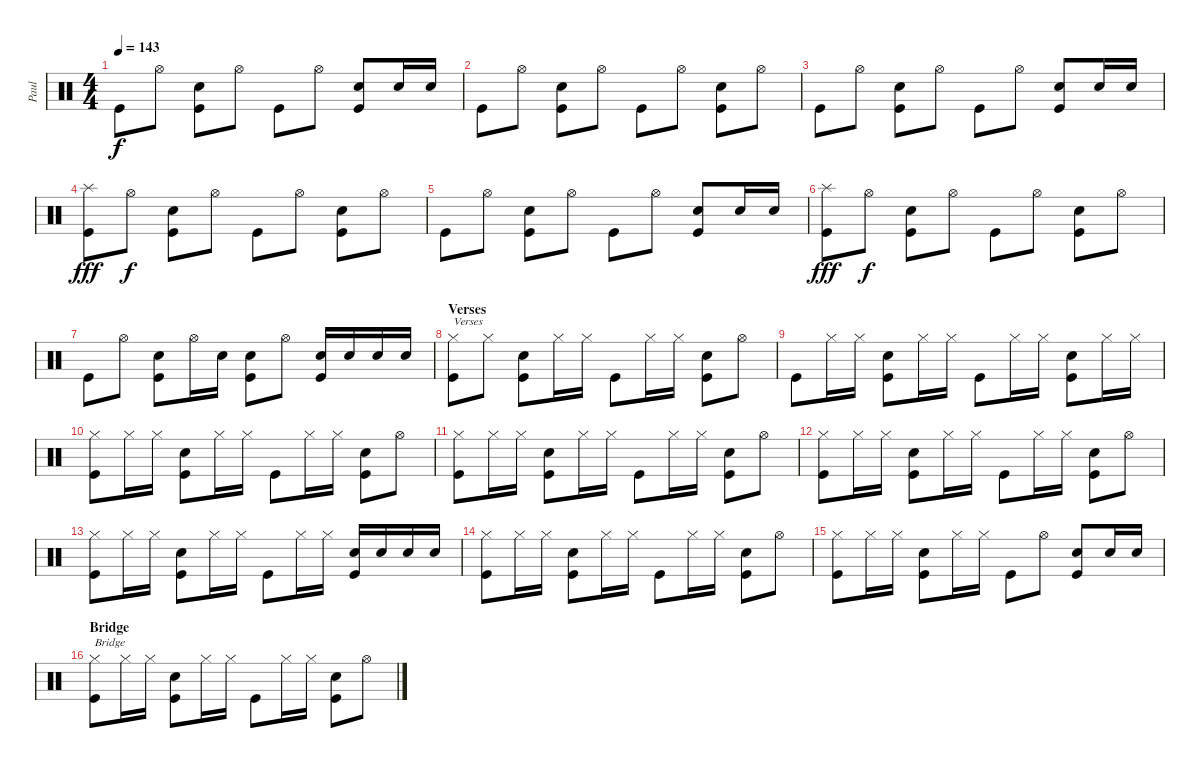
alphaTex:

\track ("Paul" "Paul") {instrument percussion}
\staff {score}
\articulation defaults
\ts (4 4)
\tempo 143
\clef neutral
\ks c "Kick (hit)".8{dy f} "Hi-Hat (open)".8
("Kick (hit)" "Electric Snare (hit)").8 "Hi-Hat (open)".8 "Kick (hit)".8 "Hi-Hat (open)".8 ("Kick (hit)" "Electric Snare (hit)").8 "Electric Snare (hit)".16 "Electric Snare (hit)".16 |
"Kick (hit)".8 "Hi-Hat (open)".8 ("Kick (hit)" "Electric Snare (hit)").8 "Hi-Hat (open)".8 "Kick (hit)".8 "Hi-Hat (open)".8 ("Kick (hit)" "Electric Snare (hit)").8 "Hi-Hat (open)".8 |
"Kick (hit)".8 "Hi-Hat (open)".8 ("Kick (hit)" "Electric Snare (hit)").8 "Hi-Hat (open)".8 "Kick (hit)".8 "Hi-Hat (open)".8 ("Kick (hit)" "Electric Snare (hit)").8 "Electric Snare (hit)".16 "Electric Snare (hit)".16 |
("Kick (hit)" "Splash (hit)").8{dy fff} "Hi-Hat (open)".8{dy f} ("Kick (hit)" "Electric Snare (hit)").8 "Hi-Hat (open)".8 "Kick (hit)".8 "Hi-Hat (open)".8 ("Kick (hit)" "Electric Snare (hit)").8 "Hi-Hat (open)".8 |
"Kick (hit)".8 "Hi-Hat (open)".8 ("Kick (hit)" "Electric Snare (hit)").8 "Hi-Hat (open)".8 "Kick (hit)".8 "Hi-Hat (open)".8 ("Kick (hit)" "Electric Snare (hit)").8 "Electric Snare (hit)".16 "Electric Snare (hit)".16 |
("Kick (hit)" "Splash (hit)").8{dy fff} "Hi-Hat (open)".8{dy f} ("Kick (hit)" "Electric Snare (hit)").8 "Hi-Hat (open)".8 "Kick (hit)".8 "Hi-Hat (open)".8 ("Kick (hit)" "Electric Snare (hit)").8 "Hi-Hat (open)".8 |
"Kick (hit)".8 "Hi-Hat (open)".8 ("Kick (hit)" "Electric Snare (hit)").8 "Hi-Hat (open)".16 "Electric Snare (hit)".16 ("Kick (hit)" "Electric Snare (hit)").8 "Hi-Hat (open)".8 ("Kick (hit)" "Electric Snare (hit)").16 "Electric Snare (hit)".16 "Electric Snare (hit)".16 "Electric Snare (hit)".16 |
\section ("" "Verses")
("Hi-Hat (closed)" "Kick (hit)").8{txt "Verses"} "Hi-Hat (closed)".8 ("Kick (hit)" "Electric Snare (hit)").8 "Hi-Hat (closed)".16 "Hi-Hat (closed)".16 "Kick (hit)".8 "Hi-Hat (closed)".16 "Hi-Hat (closed)".16 ("Kick (hit)" "Electric Snare (hit)").8 "Hi-Hat (open)".8 |
"Kick (hit)".8 "Hi-Hat (closed)".16 "Hi-Hat (closed)".16 ("Kick (hit)" "Electric Snare (hit)").8 "Hi-Hat (closed)".16 "Hi-Hat (closed)".16 "Kick (hit)".8 "Hi-Hat (closed)".16 "Hi-Hat (closed)".16 ("Kick (hit)" "Electric Snare (hit)").8 "Hi-Hat (closed)".16 "Hi-Hat (closed)".16 |
("Hi-Hat (closed)" "Kick (hit)").8 "Hi-Hat (closed)".16 "Hi-Hat (closed)".16 ("Kick (hit)" "Electric Snare (hit)").8 "Hi-Hat (closed)".16 "Hi-Hat (closed)".16 "Kick (hit)".8 "Hi-Hat (closed)".16 "Hi-Hat (closed)".16 ("Kick (hit)" "Electric Snare (hit)").8 "Hi-Hat (open)".8 |
("Hi-Hat (closed)" "Kick (hit)").8 "Hi-Hat (closed)".16 "Hi-Hat (closed)".16 ("Kick (hit)" "Electric Snare (hit)").8 "Hi-Hat (closed)".16 "Hi-Hat (closed)".16 "Kick (hit)".8 "Hi-Hat (closed)".16 "Hi-Hat (closed)".16 ("Kick (hit)" "Electric Snare (hit)").8 "Hi-Hat (open)".8 |
("Hi-Hat (closed)" "Kick (hit)").8 "Hi-Hat (closed)".16 "Hi-Hat (closed)".16 ("Kick (hit)" "Electric Snare (hit)").8 "Hi-Hat (closed)".16 "Hi-Hat (closed)".16 "Kick (hit)".8 "Hi-Hat (closed)".16 "Hi-Hat (closed)".16 ("Kick (hit)" "Electric Snare (hit)").8 "Hi-Hat (open)".8 |
("Hi-Hat (closed)" "Kick (hit)").8 "Hi-Hat (closed)".16 "Hi-Hat (closed)".16 ("Kick (hit)" "Electric Snare (hit)").8 "Hi-Hat (closed)".16 "Hi-Hat (closed)".16 "Kick (hit)".8 "Hi-Hat (closed)".16 "Hi-Hat (closed)".16 ("Kick (hit)" "Electric Snare (hit)").16 "Electric Snare (hit)".16 "Electric Snare (hit)".16 "Electric Snare (hit)".16 |
("Hi-Hat (closed)" "Kick (hit)").8 "Hi-Hat (closed)".16 "Hi-Hat (closed)".16 ("Kick (hit)" "Electric Snare (hit)").8 "Hi-Hat (closed)".16 "Hi-Hat (closed)".16 "Kick (hit)".8 "Hi-Hat (closed)".16 "Hi-Hat (closed)".16 ("Kick (hit)" "Electric Snare (hit)").8 "Hi-Hat (open)".8 |
("Hi-Hat (closed)" "Kick (hit)").8 "Hi-Hat (closed)".16 "Hi-Hat (closed)".16 ("Kick (hit)" "Electric Snare (hit)").8 "Hi-Hat (closed)".16 "Hi-Hat (closed)".16 "Kick (hit)".8 "Hi-Hat (open)".8 ("Kick (hit)" "Electric Snare (hit)").8 "Electric Snare (hit)".16 "Electric Snare (hit)".16 |
\section ("" "Bridge")
("Hi-Hat (closed)" "Kick (hit)").8{txt "Bridge"} "Hi-Hat (closed)".16 "Hi-Hat (closed)".16 ("Kick (hit)" "Electric Snare (hit)").8 "Hi-Hat (closed)".16 "Hi-Hat (closed)".16 "Kick (hit)".8 "Hi-Hat (closed)".16 "Hi-Hat (closed)".16 ("Kick (hit)" "Electric Snare (hit)").8 "Hi-Hat (open)".8
